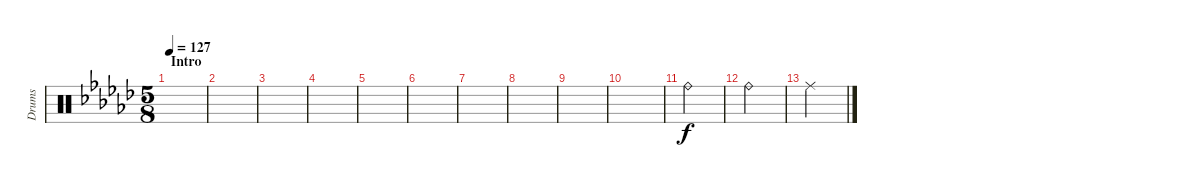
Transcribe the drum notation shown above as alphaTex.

\track ("Drums" "Drums") {instrument percussion}
\staff {score}
\articulation defaults
\ts (5 8)
\section ("" "Intro")
\tempo 127
\clef neutral
\ks ebminor
|
|
|
|
|
|
|
|
|
|
"Ride (bell)".4 |
"Ride (bell)".4 |
"Ride (middle)".4
